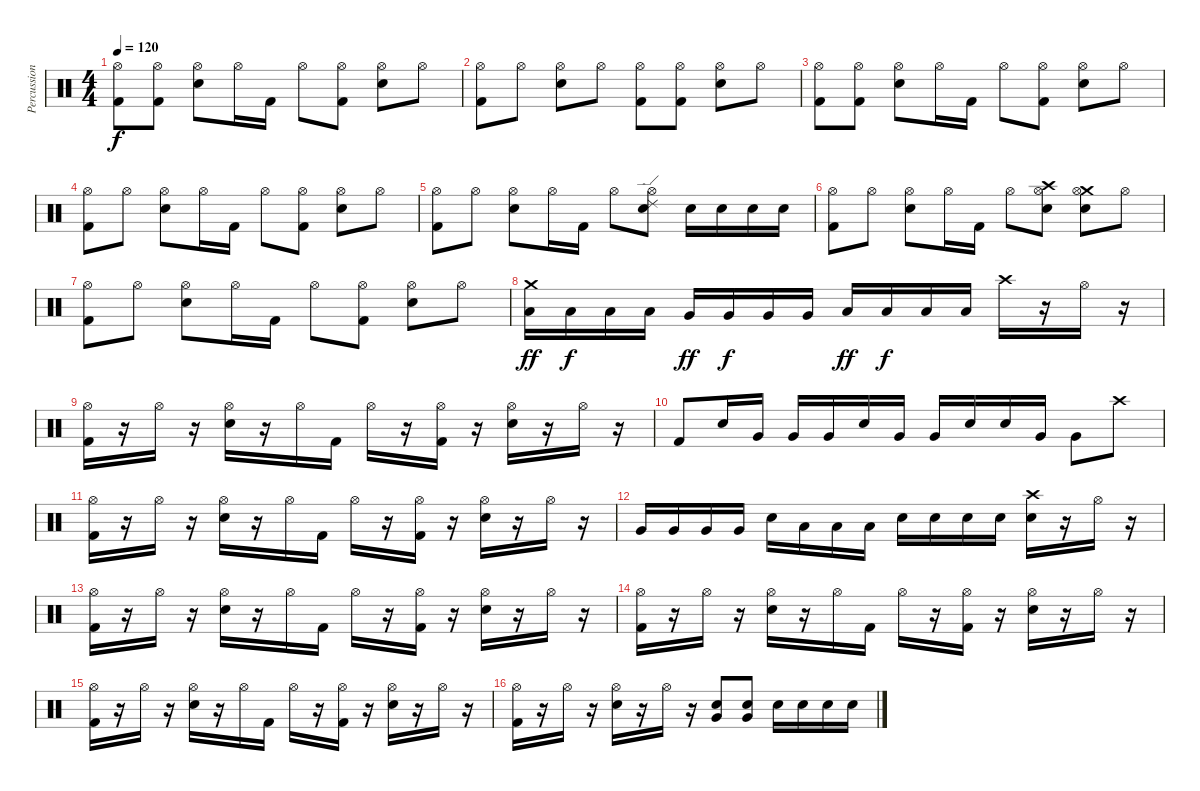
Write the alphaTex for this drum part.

\track ("Percussion" "Percussion") {instrument percussion}
\staff {score}
\articulation defaults
\ts (4 4)
\tempo 120
\clef neutral
\ks c
("Kick (hit) 2" "Hi-Hat (open)").8{dy f} ("Kick (hit) 2" "Hi-Hat (open)").8 ("Snare (hit) 2" "Hi-Hat (open)").8 "Hi-Hat (open)".16 "Kick (hit) 2".16 "Hi-Hat (open)".8 ("Kick (hit) 2" "Hi-Hat (open)").8 ("Snare (hit) 2" "Hi-Hat (open)").8 "Hi-Hat (open)".8 |
("Kick (hit) 2" "Hi-Hat (open)").8 "Hi-Hat (open)".8 ("Snare (hit) 2" "Hi-Hat (open)").8 "Hi-Hat (open)".8 ("Kick (hit) 2" "Hi-Hat (open)").8 ("Kick (hit) 2" "Hi-Hat (open)").8 ("Snare (hit) 2" "Hi-Hat (open)").8 "Hi-Hat (open)".8 |
("Kick (hit) 2" "Hi-Hat (open)").8 ("Kick (hit) 2" "Hi-Hat (open)").8 ("Snare (hit) 2" "Hi-Hat (open)").8 "Hi-Hat (open)".16 "Kick (hit) 2".16 "Hi-Hat (open)".8 ("Kick (hit) 2" "Hi-Hat (open)").8 ("Snare (hit) 2" "Hi-Hat (open)").8 "Hi-Hat (open)".8 |
("Kick (hit) 2" "Hi-Hat (open)").8 "Hi-Hat (open)".8 ("Snare (hit) 2" "Hi-Hat (open)").8 "Hi-Hat (open)".16 "Kick (hit) 2".16 "Hi-Hat (open)".8 ("Kick (hit) 2" "Hi-Hat (open)").8 ("Snare (hit) 2" "Hi-Hat (open)").8 "Hi-Hat (open)".8 |
("Kick (hit) 2" "Hi-Hat (open)").8 "Hi-Hat (open)".8 ("Snare (hit) 2" "Hi-Hat (open)").8 "Hi-Hat (open)".16 "Kick (hit) 2".16 "Hi-Hat (open)".8 ("Ride (edge) 2" "Snare (hit) 2" "Hi-Hat (open)").8 "Snare (hit) 2".16 "Snare (hit) 2".16 "Snare (hit) 2".16 "Snare (hit) 2".16 |
("Kick (hit) 2" "Hi-Hat (open)").8 "Hi-Hat (open)".8 ("Snare (hit) 2" "Hi-Hat (open)").8 "Hi-Hat (open)".16 "Kick (hit) 2".16 "Hi-Hat (open)".8 ("Crash high (hit)" "Snare (hit) 2" "Hi-Hat (open)").8 ("Crash medium (hit)" "Snare (hit) 2" "Hi-Hat (open)").8 "Hi-Hat (open)".8 |
("Kick (hit) 2" "Hi-Hat (open)").8 "Hi-Hat (open)".8 ("Snare (hit) 2" "Hi-Hat (open)").8 "Hi-Hat (open)".16 "Kick (hit) 2".16 "Hi-Hat (open)".8 ("Kick (hit) 2" "Hi-Hat (open)").8 ("Snare (hit) 2" "Hi-Hat (open)").8 "Hi-Hat (open)".8 |
("Crash medium (hit)" "Low Tom (hit)").16{dy ff} "Low Tom (hit)".16{dy f} "Low Tom (hit)".16 "Low Tom (hit)".16 "Very Low Tom (hit)".16{dy ff} "Very Low Tom (hit)".16{dy f} "Very Low Tom (hit)".16 "Very Low Tom (hit)".16 "Low Floor Tom (hit)".16{dy ff} "Low Floor Tom (hit)".16{dy f} "Low Floor Tom (hit)".16 "Low Floor Tom (hit)".16 "Crash high (hit)".16 r.16 "Hi-Hat (open)".16 r.16 |
("Kick (hit) 2" "Hi-Hat (open)").16 r.16 "Hi-Hat (open)".16 r.16 ("Snare (hit) 2" "Hi-Hat (open)").16 r.16 "Hi-Hat (open)".16 "Kick (hit) 2".16 "Hi-Hat (open)".16 r.16 ("Kick (hit) 2" "Hi-Hat (open)").16 r.16 ("Snare (hit) 2" "Hi-Hat (open)").16 r.16 "Hi-Hat (open)".16 r.16 |
"Kick (hit) 2".8 "Snare (hit) 2".16 "Very Low Tom (hit)".16 "Very Low Tom (hit)".16 "Very Low Tom (hit)".16 "Snare (hit) 2".16 "Very Low Tom (hit)".16 "Very Low Tom (hit)".16 "Snare (hit) 2".16 "Snare (hit) 2".16 "Very Low Tom (hit)".16 "Very Low Tom (hit)".8 "Crash high (hit)".8 |
("Kick (hit) 2" "Hi-Hat (open)").16 r.16 "Hi-Hat (open)".16 r.16 ("Snare (hit) 2" "Hi-Hat (open)").16 r.16 "Hi-Hat (open)".16 "Kick (hit) 2".16 "Hi-Hat (open)".16 r.16 ("Kick (hit) 2" "Hi-Hat (open)").16 r.16 ("Snare (hit) 2" "Hi-Hat (open)").16 r.16 "Hi-Hat (open)".16 r.16 |
"Very Low Tom (hit)".16 "Very Low Tom (hit)".16 "Very Low Tom (hit)".16 "Very Low Tom (hit)".16 "Snare (hit) 2".16 "Low Floor Tom (hit)".16 "Low Floor Tom (hit)".16 "Low Floor Tom (hit)".16 "Snare (hit) 2".16 "Snare (hit) 2".16 "Snare (hit) 2".16 "Snare (hit) 2".16 ("Crash high (hit)" "Snare (hit) 2").16 r.16 "Hi-Hat (open)".16 r.16 |
("Kick (hit) 2" "Hi-Hat (open)").16 r.16 "Hi-Hat (open)".16 r.16 ("Snare (hit) 2" "Hi-Hat (open)").16 r.16 "Hi-Hat (open)".16 "Kick (hit) 2".16 "Hi-Hat (open)".16 r.16 ("Kick (hit) 2" "Hi-Hat (open)").16 r.16 ("Snare (hit) 2" "Hi-Hat (open)").16 r.16 "Hi-Hat (open)".16 r.16 |
("Kick (hit) 2" "Hi-Hat (open)").16 r.16 "Hi-Hat (open)".16 r.16 ("Snare (hit) 2" "Hi-Hat (open)").16 r.16 "Hi-Hat (open)".16 "Kick (hit) 2".16 "Hi-Hat (open)".16 r.16 ("Kick (hit) 2" "Hi-Hat (open)").16 r.16 ("Snare (hit) 2" "Hi-Hat (open)").16 r.16 "Hi-Hat (open)".16 r.16 |
("Kick (hit) 2" "Hi-Hat (open)").16 r.16 "Hi-Hat (open)".16 r.16 ("Snare (hit) 2" "Hi-Hat (open)").16 r.16 "Hi-Hat (open)".16 "Kick (hit) 2".16 "Hi-Hat (open)".16 r.16 ("Kick (hit) 2" "Hi-Hat (open)").16 r.16 ("Snare (hit) 2" "Hi-Hat (open)").16 r.16 "Hi-Hat (open)".16 r.16 |
("Kick (hit) 2" "Hi-Hat (open)").16 r.16 "Hi-Hat (open)".16 r.16 ("Snare (hit) 2" "Hi-Hat (open)").16 r.16 "Hi-Hat (open)".16 r.16 ("Snare (hit) 2" "Very Low Tom (hit)").8 ("Snare (hit) 2" "Very Low Tom (hit)").8 "Snare (hit) 2".16 "Snare (hit) 2".16 "Snare (hit) 2".16 "Snare (hit) 2".16
